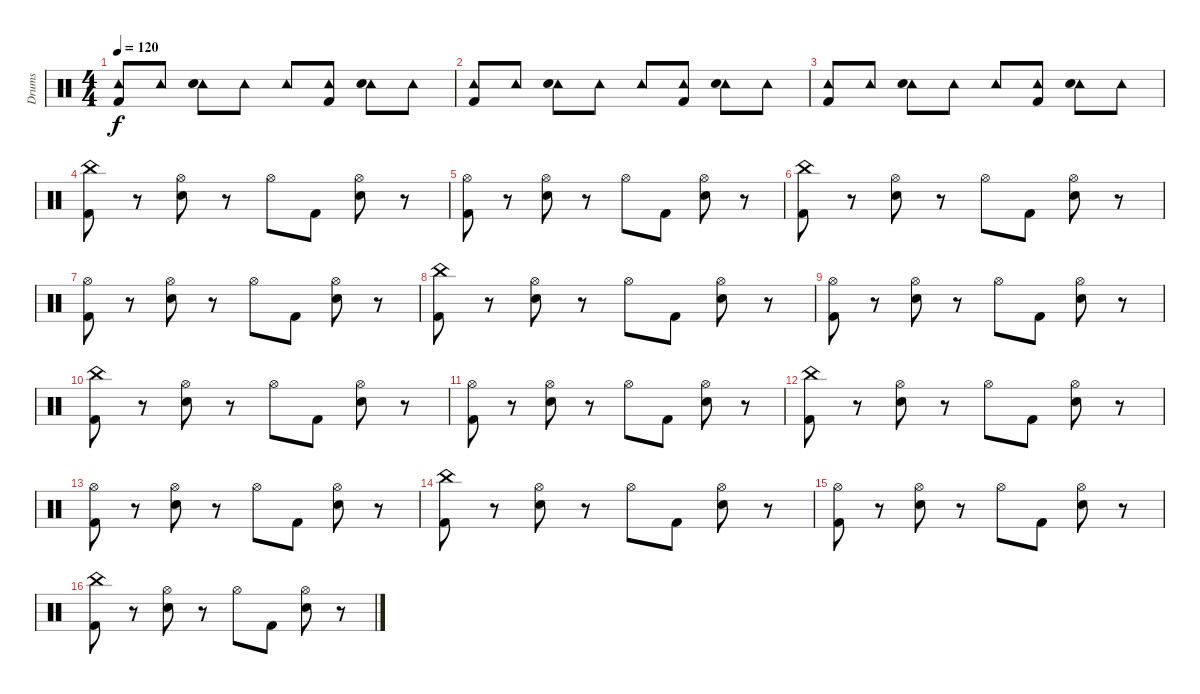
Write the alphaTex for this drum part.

\track ("Drums" "Drums") {instrument percussion}
\staff {score}
\articulation defaults
\ts (4 4)
\tempo 120
\clef neutral
\ks c
("Tambourine (hit)" "Kick (hit) 2").8{dy f} "Tambourine (hit)".8 ("Tambourine (hit)" "Hand Clap (hit)").8 "Tambourine (hit)".8 "Tambourine (hit)".8 ("Tambourine (hit)" "Kick (hit) 2").8 ("Tambourine (hit)" "Hand Clap (hit)").8 "Tambourine (hit)".8 |
("Tambourine (hit)" "Kick (hit) 2").8 "Tambourine (hit)".8 ("Tambourine (hit)" "Hand Clap (hit)").8 "Tambourine (hit)".8 "Tambourine (hit)".8 ("Tambourine (hit)" "Kick (hit) 2").8 ("Tambourine (hit)" "Hand Clap (hit)").8 "Tambourine (hit)".8 |
("Tambourine (hit)" "Kick (hit) 2").8 "Tambourine (hit)".8 ("Tambourine (hit)" "Hand Clap (hit)").8 "Tambourine (hit)".8 "Tambourine (hit)".8 ("Tambourine (hit)" "Kick (hit) 2").8 ("Tambourine (hit)" "Hand Clap (hit)").8 "Tambourine (hit)".8 |
("China (hit)" "Kick (hit) 2").8 r.8 ("Hi-Hat (open)" "Hand Clap (hit)").8 r.8 "Hi-Hat (open)".8 "Kick (hit) 2".8 ("Hi-Hat (open)" "Hand Clap (hit)").8 r.8 |
("Hi-Hat (open)" "Kick (hit) 2").8 r.8 ("Hi-Hat (open)" "Hand Clap (hit)").8 r.8 "Hi-Hat (open)".8 "Kick (hit) 2".8 ("Hi-Hat (open)" "Hand Clap (hit)").8 r.8 |
("China (hit)" "Kick (hit) 2").8 r.8 ("Hi-Hat (open)" "Hand Clap (hit)").8 r.8 "Hi-Hat (open)".8 "Kick (hit) 2".8 ("Hi-Hat (open)" "Hand Clap (hit)").8 r.8 |
("Hi-Hat (open)" "Kick (hit) 2").8 r.8 ("Hi-Hat (open)" "Hand Clap (hit)").8 r.8 "Hi-Hat (open)".8 "Kick (hit) 2".8 ("Hi-Hat (open)" "Hand Clap (hit)").8 r.8 |
("China (hit)" "Kick (hit) 2").8 r.8 ("Hi-Hat (open)" "Hand Clap (hit)").8 r.8 "Hi-Hat (open)".8 "Kick (hit) 2".8 ("Hi-Hat (open)" "Hand Clap (hit)").8 r.8 |
("Hi-Hat (open)" "Kick (hit) 2").8 r.8 ("Hi-Hat (open)" "Hand Clap (hit)").8 r.8 "Hi-Hat (open)".8 "Kick (hit) 2".8 ("Hi-Hat (open)" "Hand Clap (hit)").8 r.8 |
("China (hit)" "Kick (hit) 2").8 r.8 ("Hi-Hat (open)" "Hand Clap (hit)").8 r.8 "Hi-Hat (open)".8 "Kick (hit) 2".8 ("Hi-Hat (open)" "Hand Clap (hit)").8 r.8 |
("Hi-Hat (open)" "Kick (hit) 2").8 r.8 ("Hi-Hat (open)" "Hand Clap (hit)").8 r.8 "Hi-Hat (open)".8 "Kick (hit) 2".8 ("Hi-Hat (open)" "Hand Clap (hit)").8 r.8 |
("China (hit)" "Kick (hit) 2").8 r.8 ("Hi-Hat (open)" "Hand Clap (hit)").8 r.8 "Hi-Hat (open)".8 "Kick (hit) 2".8 ("Hi-Hat (open)" "Hand Clap (hit)").8 r.8 |
("Hi-Hat (open)" "Kick (hit) 2").8 r.8 ("Hi-Hat (open)" "Hand Clap (hit)").8 r.8 "Hi-Hat (open)".8 "Kick (hit) 2".8 ("Hi-Hat (open)" "Hand Clap (hit)").8 r.8 |
("China (hit)" "Kick (hit) 2").8 r.8 ("Hi-Hat (open)" "Hand Clap (hit)").8 r.8 "Hi-Hat (open)".8 "Kick (hit) 2".8 ("Hi-Hat (open)" "Hand Clap (hit)").8 r.8 |
("Hi-Hat (open)" "Kick (hit) 2").8 r.8 ("Hi-Hat (open)" "Hand Clap (hit)").8 r.8 "Hi-Hat (open)".8 "Kick (hit) 2".8 ("Hi-Hat (open)" "Hand Clap (hit)").8 r.8 |
("China (hit)" "Kick (hit) 2").8 r.8 ("Hi-Hat (open)" "Hand Clap (hit)").8 r.8 "Hi-Hat (open)".8 "Kick (hit) 2".8 ("Hi-Hat (open)" "Hand Clap (hit)").8 r.8
